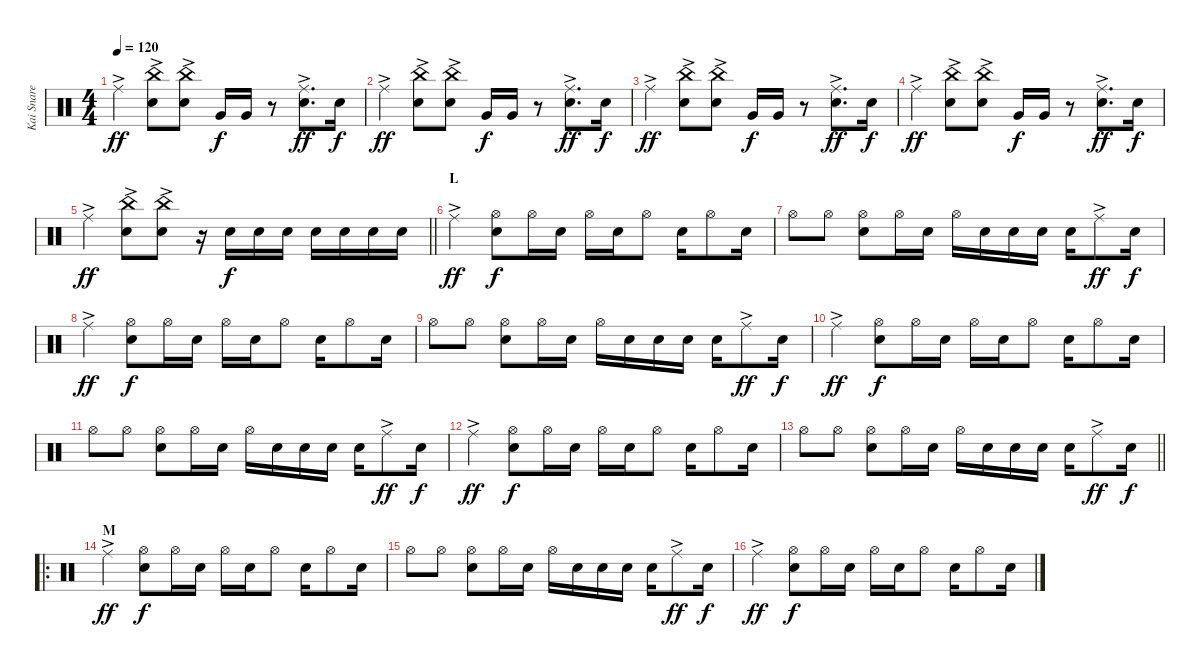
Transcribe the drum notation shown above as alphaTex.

\track ("Kai Snare" "Kai Snare") {instrument percussion}
\staff {score}
\articulation defaults
\ts (4 4)
\tempo 120
\clef neutral
\ks c "Ride (middle)"{ac}.4{dy ff}
("China (hit)"{ac} "Snare (hit) 2").8 ("China (hit)"{ac} "Snare (hit) 2").8 "Very Low Tom (hit)".16{dy f} "Very Low Tom (hit)".16 r.8 ("Ride (middle)"{ac} "Snare (hit) 2").8{d dy ff} "Snare (hit) 2".16{dy f} |
"Ride (middle)"{ac}.4{dy ff} ("China (hit)"{ac} "Snare (hit) 2").8 ("China (hit)"{ac} "Snare (hit) 2").8 "Very Low Tom (hit)".16{dy f} "Very Low Tom (hit)".16 r.8 ("Ride (middle)"{ac} "Snare (hit) 2").8{d dy ff} "Snare (hit) 2".16{dy f} |
"Ride (middle)"{ac}.4{dy ff} ("China (hit)"{ac} "Snare (hit) 2").8 ("China (hit)"{ac} "Snare (hit) 2").8 "Very Low Tom (hit)".16{dy f} "Very Low Tom (hit)".16 r.8 ("Ride (middle)"{ac} "Snare (hit) 2").8{d dy ff} "Snare (hit) 2".16{dy f} |
"Ride (middle)"{ac}.4{dy ff} ("China (hit)"{ac} "Snare (hit) 2").8 ("China (hit)"{ac} "Snare (hit) 2").8 "Very Low Tom (hit)".16{dy f} "Very Low Tom (hit)".16 r.8 ("Ride (middle)"{ac} "Snare (hit) 2").8{d dy ff} "Snare (hit) 2".16{dy f} |
\barLineRight lightlight "Ride (middle)"{ac}.4{dy ff}
("China (hit)"{ac} "Snare (hit) 2").8 ("China (hit)"{ac} "Snare (hit) 2").8 r.16 "Snare (hit) 2".16{dy f} "Snare (hit) 2".16 "Snare (hit) 2".16 "Snare (hit) 2".16 "Snare (hit) 2".16 "Snare (hit) 2".16 "Snare (hit) 2".16 |
\section ("" "L")
"Ride (middle)"{ac}.4{dy ff} ("Hi-Hat (open)" "Snare (hit) 2").8{dy f} "Hi-Hat (open)".16 "Snare (hit) 2".16 "Hi-Hat (open)".16 "Snare (hit) 2".16 "Hi-Hat (open)".8 "Snare (hit) 2".16 "Hi-Hat (open)".8 "Snare (hit) 2".16 |
"Hi-Hat (open)".8 "Hi-Hat (open)".8 ("Hi-Hat (open)" "Snare (hit) 2").8 "Hi-Hat (open)".16 "Snare (hit) 2".16 "Hi-Hat (open)".16 "Snare (hit) 2".16 "Snare (hit) 2".16 "Snare (hit) 2".16 "Snare (hit) 2".16 "Ride (middle)"{ac}.8{dy ff} "Snare (hit) 2".16{dy f} |
"Ride (middle)"{ac}.4{dy ff} ("Hi-Hat (open)" "Snare (hit) 2").8{dy f} "Hi-Hat (open)".16 "Snare (hit) 2".16 "Hi-Hat (open)".16 "Snare (hit) 2".16 "Hi-Hat (open)".8 "Snare (hit) 2".16 "Hi-Hat (open)".8 "Snare (hit) 2".16 |
"Hi-Hat (open)".8 "Hi-Hat (open)".8 ("Hi-Hat (open)" "Snare (hit) 2").8 "Hi-Hat (open)".16 "Snare (hit) 2".16 "Hi-Hat (open)".16 "Snare (hit) 2".16 "Snare (hit) 2".16 "Snare (hit) 2".16 "Snare (hit) 2".16 "Ride (middle)"{ac}.8{dy ff} "Snare (hit) 2".16{dy f} |
"Ride (middle)"{ac}.4{dy ff} ("Hi-Hat (open)" "Snare (hit) 2").8{dy f} "Hi-Hat (open)".16 "Snare (hit) 2".16 "Hi-Hat (open)".16 "Snare (hit) 2".16 "Hi-Hat (open)".8 "Snare (hit) 2".16 "Hi-Hat (open)".8 "Snare (hit) 2".16 |
"Hi-Hat (open)".8 "Hi-Hat (open)".8 ("Hi-Hat (open)" "Snare (hit) 2").8 "Hi-Hat (open)".16 "Snare (hit) 2".16 "Hi-Hat (open)".16 "Snare (hit) 2".16 "Snare (hit) 2".16 "Snare (hit) 2".16 "Snare (hit) 2".16 "Ride (middle)"{ac}.8{dy ff} "Snare (hit) 2".16{dy f} |
"Ride (middle)"{ac}.4{dy ff} ("Hi-Hat (open)" "Snare (hit) 2").8{dy f} "Hi-Hat (open)".16 "Snare (hit) 2".16 "Hi-Hat (open)".16 "Snare (hit) 2".16 "Hi-Hat (open)".8 "Snare (hit) 2".16 "Hi-Hat (open)".8 "Snare (hit) 2".16 |
\barLineRight lightlight "Hi-Hat (open)".8 "Hi-Hat (open)".8
("Hi-Hat (open)" "Snare (hit) 2").8 "Hi-Hat (open)".16 "Snare (hit) 2".16 "Hi-Hat (open)".16 "Snare (hit) 2".16 "Snare (hit) 2".16 "Snare (hit) 2".16 "Snare (hit) 2".16 "Ride (middle)"{ac}.8{dy ff} "Snare (hit) 2".16{dy f} |
\ro
\section ("" "M")
"Ride (middle)"{ac}.4{dy ff} ("Hi-Hat (open)" "Snare (hit) 2").8{dy f} "Hi-Hat (open)".16 "Snare (hit) 2".16 "Hi-Hat (open)".16 "Snare (hit) 2".16 "Hi-Hat (open)".8 "Snare (hit) 2".16 "Hi-Hat (open)".8 "Snare (hit) 2".16 |
"Hi-Hat (open)".8 "Hi-Hat (open)".8 ("Hi-Hat (open)" "Snare (hit) 2").8 "Hi-Hat (open)".16 "Snare (hit) 2".16 "Hi-Hat (open)".16 "Snare (hit) 2".16 "Snare (hit) 2".16 "Snare (hit) 2".16 "Snare (hit) 2".16 "Ride (middle)"{ac}.8{dy ff} "Snare (hit) 2".16{dy f} |
"Ride (middle)"{ac}.4{dy ff} ("Hi-Hat (open)" "Snare (hit) 2").8{dy f} "Hi-Hat (open)".16 "Snare (hit) 2".16 "Hi-Hat (open)".16 "Snare (hit) 2".16 "Hi-Hat (open)".8 "Snare (hit) 2".16 "Hi-Hat (open)".8 "Snare (hit) 2".16
